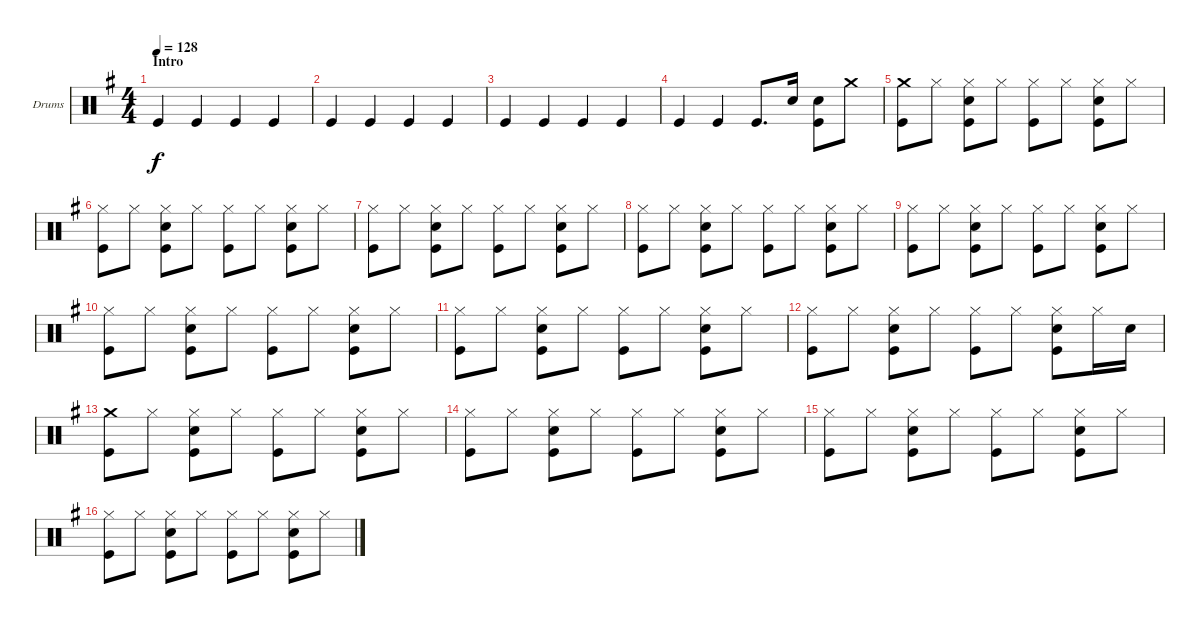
\bracketExtendMode groupsimilarinstruments
\firstSystemTrackNameOrientation horizontal
\otherSystemsTrackNameOrientation horizontal
\track ("Drumkit" "Drums") {multiBarRest instrument percussion}
\staff {score}
\articulation defaults
\ts (4 4)
\section ("" "Intro")
\tempo 128
\clef neutral
\ks eminor "Kick (hit)".4{dy f} "Kick (hit)".4 "Kick (hit)".4 "Kick (hit)".4
|
"Kick (hit)".4 "Kick (hit)".4 "Kick (hit)".4 "Kick (hit)".4 |
"Kick (hit)".4 "Kick (hit)".4 "Kick (hit)".4 "Kick (hit)".4 |
"Kick (hit)".4 "Kick (hit)".4 "Kick (hit)".8{d} "Snare (hit) 2".16 ("Snare (hit) 2" "Kick (hit)").8 "Crash medium (hit)".8 |
("Crash medium (hit)" "Kick (hit)").8 "Hi-Hat (closed)".8 ("Hi-Hat (closed)" "Snare (hit) 2" "Kick (hit)").8 "Hi-Hat (closed)".8 ("Hi-Hat (closed)" "Kick (hit)").8 "Hi-Hat (closed)".8 ("Hi-Hat (closed)" "Snare (hit) 2" "Kick (hit)").8 "Hi-Hat (closed)".8 |
("Hi-Hat (closed)" "Kick (hit)").8 "Hi-Hat (closed)".8 ("Hi-Hat (closed)" "Snare (hit) 2" "Kick (hit)").8 "Hi-Hat (closed)".8 ("Hi-Hat (closed)" "Kick (hit)").8 "Hi-Hat (closed)".8 ("Hi-Hat (closed)" "Snare (hit) 2" "Kick (hit)").8 "Hi-Hat (closed)".8 |
("Hi-Hat (closed)" "Kick (hit)").8 "Hi-Hat (closed)".8 ("Hi-Hat (closed)" "Snare (hit) 2" "Kick (hit)").8 "Hi-Hat (closed)".8 ("Hi-Hat (closed)" "Kick (hit)").8 "Hi-Hat (closed)".8 ("Hi-Hat (closed)" "Snare (hit) 2" "Kick (hit)").8 "Hi-Hat (closed)".8 |
("Hi-Hat (closed)" "Kick (hit)").8 "Hi-Hat (closed)".8 ("Hi-Hat (closed)" "Snare (hit) 2" "Kick (hit)").8 "Hi-Hat (closed)".8 ("Hi-Hat (closed)" "Kick (hit)").8 "Hi-Hat (closed)".8 ("Hi-Hat (closed)" "Snare (hit) 2" "Kick (hit)").8 "Hi-Hat (closed)".8 |
("Hi-Hat (closed)" "Kick (hit)").8 "Hi-Hat (closed)".8 ("Hi-Hat (closed)" "Snare (hit) 2" "Kick (hit)").8 "Hi-Hat (closed)".8 ("Hi-Hat (closed)" "Kick (hit)").8 "Hi-Hat (closed)".8 ("Hi-Hat (closed)" "Snare (hit) 2" "Kick (hit)").8 "Hi-Hat (closed)".8 |
("Hi-Hat (closed)" "Kick (hit)").8 "Hi-Hat (closed)".8 ("Hi-Hat (closed)" "Snare (hit) 2" "Kick (hit)").8 "Hi-Hat (closed)".8 ("Hi-Hat (closed)" "Kick (hit)").8 "Hi-Hat (closed)".8 ("Hi-Hat (closed)" "Snare (hit) 2" "Kick (hit)").8 "Hi-Hat (closed)".8 |
("Hi-Hat (closed)" "Kick (hit)").8 "Hi-Hat (closed)".8 ("Hi-Hat (closed)" "Snare (hit) 2" "Kick (hit)").8 "Hi-Hat (closed)".8 ("Hi-Hat (closed)" "Kick (hit)").8 "Hi-Hat (closed)".8 ("Hi-Hat (closed)" "Snare (hit) 2" "Kick (hit)").8 "Hi-Hat (closed)".8 |
("Hi-Hat (closed)" "Kick (hit)").8 "Hi-Hat (closed)".8 ("Hi-Hat (closed)" "Snare (hit) 2" "Kick (hit)").8 "Hi-Hat (closed)".8 ("Hi-Hat (closed)" "Kick (hit)").8 "Hi-Hat (closed)".8 ("Hi-Hat (closed)" "Snare (hit) 2" "Kick (hit)").8 "Hi-Hat (closed)".16 "Snare (hit) 2".16 |
("Crash medium (hit)" "Kick (hit)").8 "Hi-Hat (closed)".8 ("Hi-Hat (closed)" "Snare (hit) 2" "Kick (hit)").8 "Hi-Hat (closed)".8 ("Hi-Hat (closed)" "Kick (hit)").8 "Hi-Hat (closed)".8 ("Hi-Hat (closed)" "Snare (hit) 2" "Kick (hit)").8 "Hi-Hat (closed)".8 |
("Hi-Hat (closed)" "Kick (hit)").8 "Hi-Hat (closed)".8 ("Hi-Hat (closed)" "Snare (hit) 2" "Kick (hit)").8 "Hi-Hat (closed)".8 ("Hi-Hat (closed)" "Kick (hit)").8 "Hi-Hat (closed)".8 ("Hi-Hat (closed)" "Snare (hit) 2" "Kick (hit)").8 "Hi-Hat (closed)".8 |
("Hi-Hat (closed)" "Kick (hit)").8 "Hi-Hat (closed)".8 ("Hi-Hat (closed)" "Snare (hit) 2" "Kick (hit)").8 "Hi-Hat (closed)".8 ("Hi-Hat (closed)" "Kick (hit)").8 "Hi-Hat (closed)".8 ("Hi-Hat (closed)" "Snare (hit) 2" "Kick (hit)").8 "Hi-Hat (closed)".8 |
("Hi-Hat (closed)" "Kick (hit)").8 "Hi-Hat (closed)".8 ("Hi-Hat (closed)" "Snare (hit) 2" "Kick (hit)").8 "Hi-Hat (closed)".8 ("Hi-Hat (closed)" "Kick (hit)").8 "Hi-Hat (closed)".8 ("Hi-Hat (closed)" "Snare (hit) 2" "Kick (hit)").8 "Hi-Hat (closed)".8
